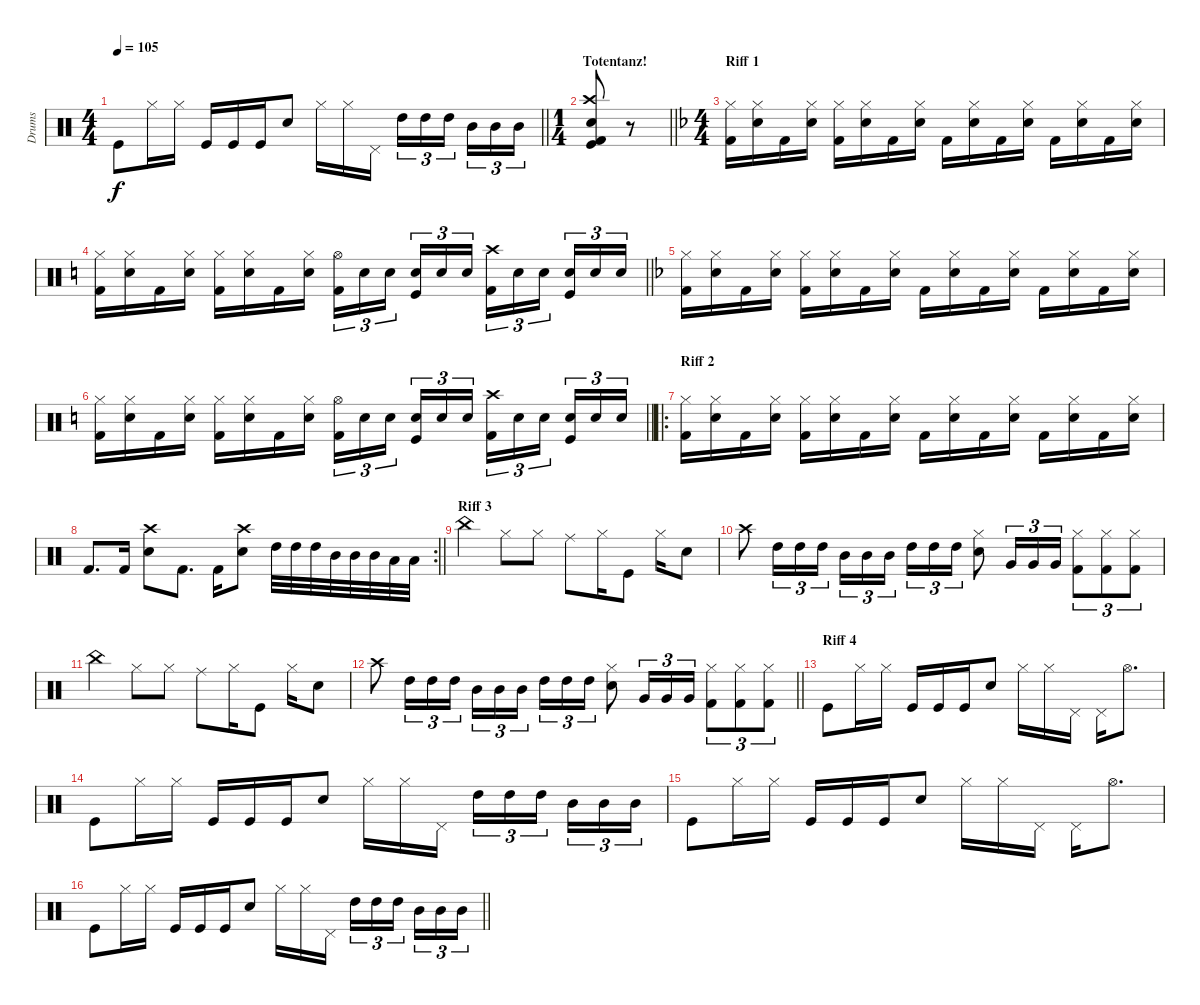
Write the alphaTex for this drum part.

\track ("Drums" "Drums") {instrument percussion}
\staff {score}
\articulation defaults
\ts (4 4)
\tempo 105
\clef neutral
\barLineRight lightlight
\ks c "Kick (hit)".8{dy f} "Hi-Hat (closed)".16 "Hi-Hat (closed)".16 "Kick (hit)".16 "Kick (hit)".16 "Kick (hit)".16 "Snare (hit) 2".8 "Hi-Hat (closed)".16 "Hi-Hat (closed)".16 "Pedal Hi-Hat (hit)".16 "High Tom (hit)".16{tu (3 2)} "High Tom (hit)".16{tu (3 2)} "High Tom (hit)".16{tu (3 2) beam splitsecondary} "Mid Tom (hit)".16{tu (3 2)} "Mid Tom (hit)".16{tu (3 2)} "Mid Tom (hit)".16{tu (3 2)}
|
\ts (1 4)
\section ("" "Totentanz!")
\barLineRight lightlight
("Crash high (hit)" "Snare (hit) 2" "Kick (hit) 2" "Kick (hit)").8 r.8 |
\ts (4 4)
\section ("" "Riff 1")
\ks f
("Hi-Hat (closed)" "Kick (hit) 2").16 ("Hi-Hat (closed)" "Snare (hit) 2").16 "Kick (hit) 2".16 ("Hi-Hat (closed)" "Snare (hit) 2").16 ("Hi-Hat (closed)" "Kick (hit) 2").16 ("Hi-Hat (closed)" "Snare (hit) 2").16 "Kick (hit) 2".16 ("Hi-Hat (closed)" "Snare (hit) 2").16 "Kick (hit) 2".16 ("Hi-Hat (closed)" "Snare (hit) 2").16 "Kick (hit) 2".16 ("Hi-Hat (closed)" "Snare (hit) 2").16 "Kick (hit) 2".16 ("Hi-Hat (closed)" "Snare (hit) 2").16 "Kick (hit) 2".16 ("Hi-Hat (closed)" "Snare (hit) 2").16 |
\barLineRight lightlight
\ks c
("Hi-Hat (closed)" "Kick (hit) 2").16 ("Hi-Hat (closed)" "Snare (hit) 2").16 "Kick (hit) 2".16 ("Hi-Hat (closed)" "Snare (hit) 2").16 ("Hi-Hat (closed)" "Kick (hit) 2").16 ("Hi-Hat (closed)" "Snare (hit) 2").16 "Kick (hit) 2".16 ("Hi-Hat (closed)" "Snare (hit) 2").16 ("Hi-Hat (open)" "Kick (hit) 2").16{tu (3 2)} "Snare (hit) 2".16{tu (3 2)} "Snare (hit) 2".16{tu (3 2) beam splitsecondary} ("Kick (hit)" "Snare (hit) 2").16{tu (3 2)} "Snare (hit) 2".16{tu (3 2)} "Snare (hit) 2".16{tu (3 2)} ("Crash high (hit)" "Kick (hit) 2").16{tu (3 2)} "Snare (hit) 2".16{tu (3 2)} "Snare (hit) 2".16{tu (3 2) beam splitsecondary} ("Kick (hit)" "Snare (hit) 2").16{tu (3 2)} "Snare (hit) 2".16{tu (3 2)} "Snare (hit) 2".16{tu (3 2)} |
\ks f
("Hi-Hat (closed)" "Kick (hit) 2").16 ("Hi-Hat (closed)" "Snare (hit) 2").16 "Kick (hit) 2".16 ("Hi-Hat (closed)" "Snare (hit) 2").16 ("Hi-Hat (closed)" "Kick (hit) 2").16 ("Hi-Hat (closed)" "Snare (hit) 2").16 "Kick (hit) 2".16 ("Hi-Hat (closed)" "Snare (hit) 2").16 "Kick (hit) 2".16 ("Hi-Hat (closed)" "Snare (hit) 2").16 "Kick (hit) 2".16 ("Hi-Hat (closed)" "Snare (hit) 2").16 "Kick (hit) 2".16 ("Hi-Hat (closed)" "Snare (hit) 2").16 "Kick (hit) 2".16 ("Hi-Hat (closed)" "Snare (hit) 2").16 |
\barLineRight lightlight
\ks c
("Hi-Hat (closed)" "Kick (hit) 2").16 ("Hi-Hat (closed)" "Snare (hit) 2").16 "Kick (hit) 2".16 ("Hi-Hat (closed)" "Snare (hit) 2").16 ("Hi-Hat (closed)" "Kick (hit) 2").16 ("Hi-Hat (closed)" "Snare (hit) 2").16 "Kick (hit) 2".16 ("Hi-Hat (closed)" "Snare (hit) 2").16 ("Hi-Hat (open)" "Kick (hit) 2").16{tu (3 2)} "Snare (hit) 2".16{tu (3 2)} "Snare (hit) 2".16{tu (3 2) beam splitsecondary} ("Kick (hit)" "Snare (hit) 2").16{tu (3 2)} "Snare (hit) 2".16{tu (3 2)} "Snare (hit) 2".16{tu (3 2)} ("Crash high (hit)" "Kick (hit) 2").16{tu (3 2)} "Snare (hit) 2".16{tu (3 2)} "Snare (hit) 2".16{tu (3 2) beam splitsecondary} ("Kick (hit)" "Snare (hit) 2").16{tu (3 2)} "Snare (hit) 2".16{tu (3 2)} "Snare (hit) 2".16{tu (3 2)} |
\ro
\section ("" "Riff 2")
("Hi-Hat (closed)" "Kick (hit) 2").16 ("Hi-Hat (closed)" "Snare (hit) 2").16 "Kick (hit) 2".16 ("Hi-Hat (closed)" "Snare (hit) 2").16 ("Hi-Hat (closed)" "Kick (hit) 2").16 ("Hi-Hat (closed)" "Snare (hit) 2").16 "Kick (hit) 2".16 ("Hi-Hat (closed)" "Snare (hit) 2").16 "Kick (hit) 2".16 ("Hi-Hat (closed)" "Snare (hit) 2").16 "Kick (hit) 2".16 ("Hi-Hat (closed)" "Snare (hit) 2").16 "Kick (hit) 2".16 ("Hi-Hat (closed)" "Snare (hit) 2").16 "Kick (hit) 2".16 ("Hi-Hat (closed)" "Snare (hit) 2").16 |
\rc 2
\barLineRight lightlight "Kick (hit) 2".8{d} "Kick (hit) 2".16
("Crash high (hit)" "Snare (hit) 2").8 "Kick (hit) 2".8{d} "Kick (hit) 2".16 ("Crash high (hit)" "Snare (hit) 2").8 "High Tom (hit)".32 "High Tom (hit)".32 "High Tom (hit)".32 "Mid Tom (hit)".32 "Mid Tom (hit)".32 "Mid Tom (hit)".32 "Low Tom (hit)".32 "Low Tom (hit)".32 |
\section ("" "Riff 3")
"China (hit)".4 "Hi-Hat (closed)".8 "Hi-Hat (closed)".8 "Ride (middle)".8 "Hi-Hat (closed)".16 "Kick (hit)".8 "Hi-Hat (closed)".16 "Snare (hit) 2".8 |
"Crash high (hit)".8 "High Tom (hit)".16{tu (3 2)} "High Tom (hit)".16{tu (3 2)} "High Tom (hit)".16{tu (3 2)} "Mid Tom (hit)".16{tu (3 2)} "Mid Tom (hit)".16{tu (3 2)} "Mid Tom (hit)".16{tu (3 2) beam splitsecondary} "High Tom (hit)".16{tu (3 2)} "High Tom (hit)".16{tu (3 2)} "High Tom (hit)".16{tu (3 2)} ("Hi-Hat (closed)" "Snare (hit) 2").8 "Very Low Tom (hit)".16{tu (3 2)} "Very Low Tom (hit)".16{tu (3 2)} "Very Low Tom (hit)".16{tu (3 2)} ("Hi-Hat (closed)" "Kick (hit) 2").8{tu (3 2)} ("Hi-Hat (closed)" "Kick (hit) 2").8{tu (3 2)} ("Hi-Hat (closed)" "Kick (hit) 2").8{tu (3 2)} |
"China (hit)".4 "Hi-Hat (closed)".8 "Hi-Hat (closed)".8 "Ride (middle)".8 "Hi-Hat (closed)".16 "Kick (hit)".8 "Hi-Hat (closed)".16 "Snare (hit) 2".8 |
\barLineRight lightlight "Crash high (hit)".8 "High Tom (hit)".16{tu (3 2)} "High Tom (hit)".16{tu (3 2)} "High Tom (hit)".16{tu (3 2)} "Mid Tom (hit)".16{tu (3 2)} "Mid Tom (hit)".16{tu (3 2)} "Mid Tom (hit)".16{tu (3 2) beam splitsecondary} "High Tom (hit)".16{tu (3 2)} "High Tom (hit)".16{tu (3 2)} "High Tom (hit)".16{tu (3 2)}
("Hi-Hat (closed)" "Snare (hit) 2").8 "Very Low Tom (hit)".16{tu (3 2)} "Very Low Tom (hit)".16{tu (3 2)} "Very Low Tom (hit)".16{tu (3 2)} ("Hi-Hat (closed)" "Kick (hit) 2").8{tu (3 2)} ("Hi-Hat (closed)" "Kick (hit) 2").8{tu (3 2)} ("Hi-Hat (closed)" "Kick (hit) 2").8{tu (3 2)} |
\section ("" "Riff 4")
"Kick (hit)".8 "Hi-Hat (closed)".16 "Hi-Hat (closed)".16 "Kick (hit)".16 "Kick (hit)".16 "Kick (hit)".16 "Snare (hit) 2".8 "Hi-Hat (closed)".16 "Hi-Hat (closed)".16 "Pedal Hi-Hat (hit)".16 "Pedal Hi-Hat (hit)".16 "Hi-Hat (open)".8{d} |
"Kick (hit)".8 "Hi-Hat (closed)".16 "Hi-Hat (closed)".16 "Kick (hit)".16 "Kick (hit)".16 "Kick (hit)".16 "Snare (hit) 2".8 "Hi-Hat (closed)".16 "Hi-Hat (closed)".16 "Pedal Hi-Hat (hit)".16 "High Tom (hit)".16{tu (3 2)} "High Tom (hit)".16{tu (3 2)} "High Tom (hit)".16{tu (3 2) beam splitsecondary} "Mid Tom (hit)".16{tu (3 2)} "Mid Tom (hit)".16{tu (3 2)} "Mid Tom (hit)".16{tu (3 2)} |
"Kick (hit)".8 "Hi-Hat (closed)".16 "Hi-Hat (closed)".16 "Kick (hit)".16 "Kick (hit)".16 "Kick (hit)".16 "Snare (hit) 2".8 "Hi-Hat (closed)".16 "Hi-Hat (closed)".16 "Pedal Hi-Hat (hit)".16 "Pedal Hi-Hat (hit)".16 "Hi-Hat (open)".8{d} |
\barLineRight lightlight "Kick (hit)".8 "Hi-Hat (closed)".16 "Hi-Hat (closed)".16 "Kick (hit)".16 "Kick (hit)".16 "Kick (hit)".16 "Snare (hit) 2".8 "Hi-Hat (closed)".16 "Hi-Hat (closed)".16 "Pedal Hi-Hat (hit)".16 "High Tom (hit)".16{tu (3 2)} "High Tom (hit)".16{tu (3 2)} "High Tom (hit)".16{tu (3 2) beam splitsecondary} "Mid Tom (hit)".16{tu (3 2)} "Mid Tom (hit)".16{tu (3 2)} "Mid Tom (hit)".16{tu (3 2)}
